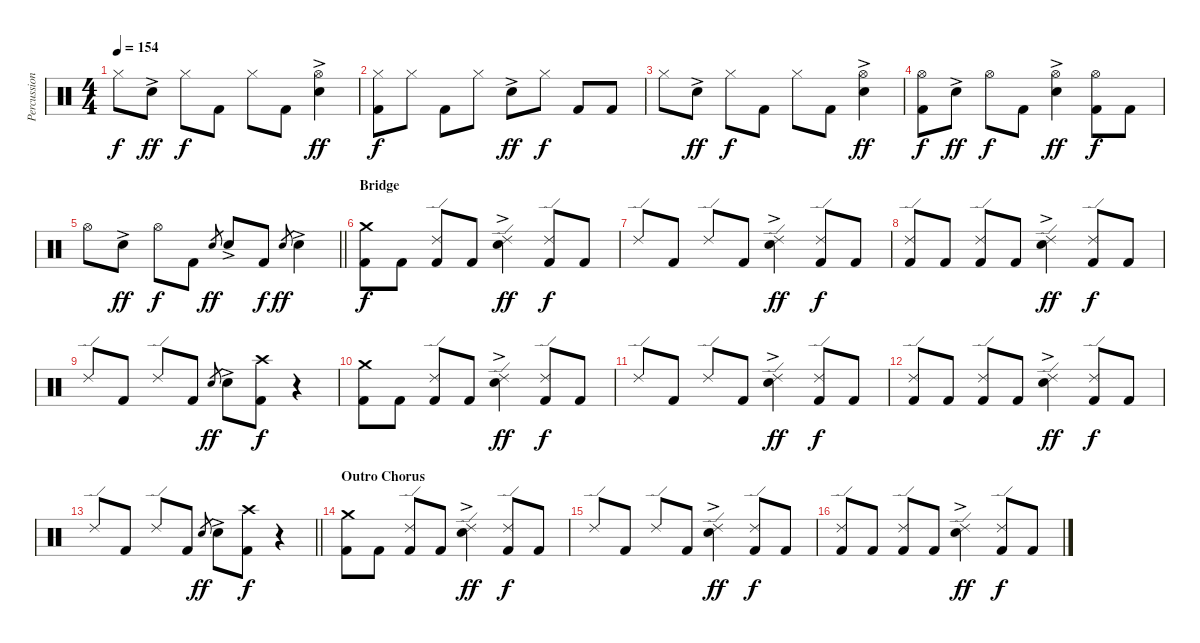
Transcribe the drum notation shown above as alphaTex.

\track ("Percussion" "Percussion") {instrument percussion}
\staff {score}
\articulation defaults
\ts (4 4)
\tempo 154
\clef neutral
\ks c "Hi-Hat (closed)".8{dy f} "Electric Snare (hit)"{ac}.8{dy ff} "Hi-Hat (closed)".8{dy f} "Kick (hit) 2".8 "Hi-Hat (closed)".8 "Kick (hit) 2".8
("Hi-Hat (open)" "Electric Snare (hit)"{ac}).4{dy ff} |
("Hi-Hat (closed)" "Kick (hit) 2").8{dy f} "Hi-Hat (closed)".8 "Kick (hit) 2".8 "Hi-Hat (closed)".8 "Electric Snare (hit)"{ac}.8{dy ff} "Hi-Hat (closed)".8{dy f} "Kick (hit) 2".8 "Kick (hit) 2".8 |
"Hi-Hat (closed)".8 "Electric Snare (hit)"{ac}.8{dy ff} "Hi-Hat (closed)".8{dy f} "Kick (hit) 2".8 "Hi-Hat (closed)".8 "Kick (hit) 2".8 ("Hi-Hat (open)" "Electric Snare (hit)"{ac}).4{dy ff} |
("Hi-Hat (open)" "Kick (hit) 2").8{dy f} "Electric Snare (hit)"{ac}.8{dy ff} "Hi-Hat (open)".8{dy f} "Kick (hit) 2".8 ("Hi-Hat (open)" "Electric Snare (hit)"{ac}).4{dy ff} ("Hi-Hat (open)" "Kick (hit) 2").8{dy f} "Kick (hit) 2".8 |
\barLineRight lightlight "Hi-Hat (open)".8 "Electric Snare (hit)"{ac}.8{dy ff} "Hi-Hat (open)".8{dy f} "Kick (hit) 2".8 "Electric Snare (hit)".8{gr dy ff} "Electric Snare (hit)"{ac}.8 "Kick (hit) 2".8{dy f} "Electric Snare (hit)".8{gr dy ff} "Electric Snare (hit)"{ac}.4
|
\section ("" "Bridge")
("Crash medium (hit)" "Kick (hit) 2").8{dy f} "Kick (hit) 2".8 ("Ride (edge) 2" "Kick (hit) 2").8 "Kick (hit) 2".8 ("Ride (edge) 2" "Electric Snare (hit)"{ac}).4{dy ff} ("Ride (edge) 2" "Kick (hit) 2").8{dy f} "Kick (hit) 2".8 |
"Ride (edge) 2".8 "Kick (hit) 2".8 "Ride (edge) 2".8 "Kick (hit) 2".8 ("Ride (edge) 2" "Electric Snare (hit)"{ac}).4{dy ff} ("Ride (edge) 2" "Kick (hit) 2").8{dy f} "Kick (hit) 2".8 |
("Ride (edge) 2" "Kick (hit) 2").8 "Kick (hit) 2".8 ("Ride (edge) 2" "Kick (hit) 2").8 "Kick (hit) 2".8 ("Ride (edge) 2" "Electric Snare (hit)"{ac}).4{dy ff} ("Ride (edge) 2" "Kick (hit) 2").8{dy f} "Kick (hit) 2".8 |
"Ride (edge) 2".8 "Kick (hit) 2".8 "Ride (edge) 2".8 "Kick (hit) 2".8 "Electric Snare (hit)".8{gr dy ff} "Electric Snare (hit)"{ac}.8 ("Crash high (hit)" "Kick (hit) 2").8{dy f} r.4 |
("Crash medium (hit)" "Kick (hit) 2").8 "Kick (hit) 2".8 ("Ride (edge) 2" "Kick (hit) 2").8 "Kick (hit) 2".8 ("Ride (edge) 2" "Electric Snare (hit)"{ac}).4{dy ff} ("Ride (edge) 2" "Kick (hit) 2").8{dy f} "Kick (hit) 2".8 |
"Ride (edge) 2".8 "Kick (hit) 2".8 "Ride (edge) 2".8 "Kick (hit) 2".8 ("Ride (edge) 2" "Electric Snare (hit)"{ac}).4{dy ff} ("Ride (edge) 2" "Kick (hit) 2").8{dy f} "Kick (hit) 2".8 |
("Ride (edge) 2" "Kick (hit) 2").8 "Kick (hit) 2".8 ("Ride (edge) 2" "Kick (hit) 2").8 "Kick (hit) 2".8 ("Ride (edge) 2" "Electric Snare (hit)"{ac}).4{dy ff} ("Ride (edge) 2" "Kick (hit) 2").8{dy f} "Kick (hit) 2".8 |
\barLineRight lightlight "Ride (edge) 2".8 "Kick (hit) 2".8 "Ride (edge) 2".8 "Kick (hit) 2".8 "Electric Snare (hit)".8{gr dy ff} "Electric Snare (hit)"{ac}.8
("Crash high (hit)" "Kick (hit) 2").8{dy f} r.4 |
\section ("" "Outro Chorus")
("Crash medium (hit)" "Kick (hit) 2").8 "Kick (hit) 2".8 ("Ride (edge) 2" "Kick (hit) 2").8 "Kick (hit) 2".8 ("Ride (edge) 2" "Electric Snare (hit)"{ac}).4{dy ff} ("Ride (edge) 2" "Kick (hit) 2").8{dy f} "Kick (hit) 2".8 |
"Ride (edge) 2".8 "Kick (hit) 2".8 "Ride (edge) 2".8 "Kick (hit) 2".8 ("Ride (edge) 2" "Electric Snare (hit)"{ac}).4{dy ff} ("Ride (edge) 2" "Kick (hit) 2").8{dy f} "Kick (hit) 2".8 |
("Ride (edge) 2" "Kick (hit) 2").8 "Kick (hit) 2".8 ("Ride (edge) 2" "Kick (hit) 2").8 "Kick (hit) 2".8 ("Ride (edge) 2" "Electric Snare (hit)"{ac}).4{dy ff} ("Ride (edge) 2" "Kick (hit) 2").8{dy f} "Kick (hit) 2".8
